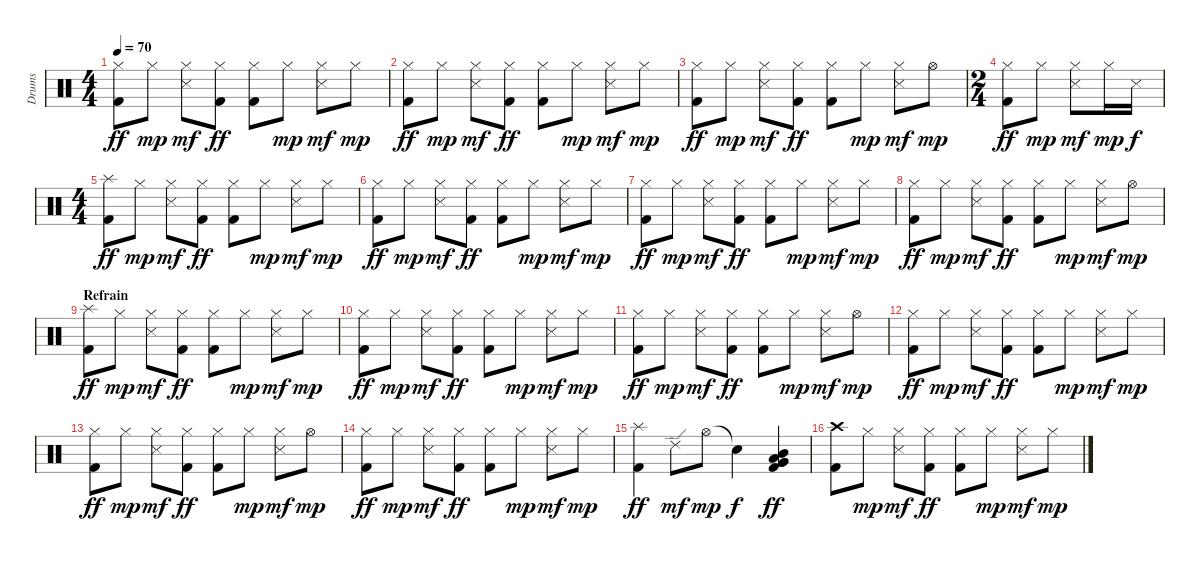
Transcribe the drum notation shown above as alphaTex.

\track ("Drums" "Drums") {instrument percussion}
\staff {score}
\articulation defaults
\ts (4 4)
\tempo 70
\clef neutral
\ks c
("Hi-Hat (closed)" "Kick (hit) 2").8{dy ff} "Hi-Hat (closed)".8{dy mp} ("Hi-Hat (closed)" "Snare (side stick) 3").8{dy mf} ("Hi-Hat (closed)" "Kick (hit) 2").8{dy ff} ("Hi-Hat (closed)" "Kick (hit) 2").8 "Hi-Hat (closed)".8{dy mp} ("Hi-Hat (closed)" "Snare (side stick) 3").8{dy mf} "Hi-Hat (closed)".8{dy mp} |
("Hi-Hat (closed)" "Kick (hit) 2").8{dy ff} "Hi-Hat (closed)".8{dy mp} ("Hi-Hat (closed)" "Snare (side stick) 3").8{dy mf} ("Hi-Hat (closed)" "Kick (hit) 2").8{dy ff} ("Hi-Hat (closed)" "Kick (hit) 2").8 "Hi-Hat (closed)".8{dy mp} ("Hi-Hat (closed)" "Snare (side stick) 3").8{dy mf} "Hi-Hat (closed)".8{dy mp} |
("Hi-Hat (closed)" "Kick (hit) 2").8{dy ff} "Hi-Hat (closed)".8{dy mp} ("Hi-Hat (closed)" "Snare (side stick) 3").8{dy mf} ("Hi-Hat (closed)" "Kick (hit) 2").8{dy ff} ("Hi-Hat (closed)" "Kick (hit) 2").8 "Hi-Hat (closed)".8{dy mp} ("Hi-Hat (closed)" "Snare (side stick) 3").8{dy mf} "Hi-Hat (open)".8{dy mp} |
\ts (2 4)
("Hi-Hat (closed)" "Kick (hit) 2").8{dy ff} "Hi-Hat (closed)".8{dy mp} ("Hi-Hat (closed)" "Snare (side stick) 3").8{dy mf} "Hi-Hat (closed)".16{dy mp} "Snare (side stick) 3".16{dy f} |
\ts (4 4)
("Splash (hit)" "Kick (hit) 2").8{dy ff} "Hi-Hat (closed)".8{dy mp} ("Hi-Hat (closed)" "Snare (side stick) 3").8{dy mf} ("Hi-Hat (closed)" "Kick (hit) 2").8{dy ff} ("Hi-Hat (closed)" "Kick (hit) 2").8 "Hi-Hat (closed)".8{dy mp} ("Hi-Hat (closed)" "Snare (side stick) 3").8{dy mf} "Hi-Hat (closed)".8{dy mp} |
("Hi-Hat (closed)" "Kick (hit) 2").8{dy ff} "Hi-Hat (closed)".8{dy mp} ("Hi-Hat (closed)" "Snare (side stick) 3").8{dy mf} ("Hi-Hat (closed)" "Kick (hit) 2").8{dy ff} ("Hi-Hat (closed)" "Kick (hit) 2").8 "Hi-Hat (closed)".8{dy mp} ("Hi-Hat (closed)" "Snare (side stick) 3").8{dy mf} "Hi-Hat (closed)".8{dy mp} |
("Hi-Hat (closed)" "Kick (hit) 2").8{dy ff} "Hi-Hat (closed)".8{dy mp} ("Hi-Hat (closed)" "Snare (side stick) 3").8{dy mf} ("Hi-Hat (closed)" "Kick (hit) 2").8{dy ff} ("Hi-Hat (closed)" "Kick (hit) 2").8 "Hi-Hat (closed)".8{dy mp} ("Hi-Hat (closed)" "Snare (side stick) 3").8{dy mf} "Hi-Hat (closed)".8{dy mp} |
("Hi-Hat (closed)" "Kick (hit) 2").8{dy ff} "Hi-Hat (closed)".8{dy mp} ("Hi-Hat (closed)" "Snare (side stick) 3").8{dy mf} ("Hi-Hat (closed)" "Kick (hit) 2").8{dy ff} ("Hi-Hat (closed)" "Kick (hit) 2").8 "Hi-Hat (closed)".8{dy mp} ("Hi-Hat (closed)" "Snare (side stick) 3").8{dy mf} "Hi-Hat (open)".8{dy mp} |
\section ("" "Refrain")
("Splash (hit)" "Kick (hit) 2").8{dy ff} "Hi-Hat (closed)".8{dy mp} ("Hi-Hat (closed)" "Snare (side stick) 3").8{dy mf} ("Hi-Hat (closed)" "Kick (hit) 2").8{dy ff} ("Hi-Hat (closed)" "Kick (hit) 2").8 "Hi-Hat (closed)".8{dy mp} ("Hi-Hat (closed)" "Snare (side stick) 3").8{dy mf} "Hi-Hat (closed)".8{dy mp} |
("Hi-Hat (closed)" "Kick (hit) 2").8{dy ff} "Hi-Hat (closed)".8{dy mp} ("Hi-Hat (closed)" "Snare (side stick) 3").8{dy mf} ("Hi-Hat (closed)" "Kick (hit) 2").8{dy ff} ("Hi-Hat (closed)" "Kick (hit) 2").8 "Hi-Hat (closed)".8{dy mp} ("Hi-Hat (closed)" "Snare (side stick) 3").8{dy mf} "Hi-Hat (closed)".8{dy mp} |
("Hi-Hat (closed)" "Kick (hit) 2").8{dy ff} "Hi-Hat (closed)".8{dy mp} ("Hi-Hat (closed)" "Snare (side stick) 3").8{dy mf} ("Hi-Hat (closed)" "Kick (hit) 2").8{dy ff} ("Hi-Hat (closed)" "Kick (hit) 2").8 "Hi-Hat (closed)".8{dy mp} ("Hi-Hat (closed)" "Snare (side stick) 3").8{dy mf} "Hi-Hat (open)".8{dy mp} |
("Hi-Hat (closed)" "Kick (hit) 2").8{dy ff} "Hi-Hat (closed)".8{dy mp} ("Hi-Hat (closed)" "Snare (side stick) 3").8{dy mf} ("Hi-Hat (closed)" "Kick (hit) 2").8{dy ff} ("Hi-Hat (closed)" "Kick (hit) 2").8 "Hi-Hat (closed)".8{dy mp} ("Hi-Hat (closed)" "Snare (side stick) 3").8{dy mf} "Hi-Hat (closed)".8{dy mp} |
("Hi-Hat (closed)" "Kick (hit) 2").8{dy ff} "Hi-Hat (closed)".8{dy mp} ("Hi-Hat (closed)" "Snare (side stick) 3").8{dy mf} ("Hi-Hat (closed)" "Kick (hit) 2").8{dy ff} ("Hi-Hat (closed)" "Kick (hit) 2").8 "Hi-Hat (closed)".8{dy mp} ("Hi-Hat (closed)" "Snare (side stick) 3").8{dy mf} "Hi-Hat (open)".8{dy mp} |
("Hi-Hat (closed)" "Kick (hit) 2").8{dy ff} "Hi-Hat (closed)".8{dy mp} ("Hi-Hat (closed)" "Snare (side stick) 3").8{dy mf} ("Hi-Hat (closed)" "Kick (hit) 2").8{dy ff} ("Hi-Hat (closed)" "Kick (hit) 2").8 "Hi-Hat (closed)".8{dy mp} ("Hi-Hat (closed)" "Snare (side stick) 3").8{dy mf} "Hi-Hat (closed)".8{dy mp} |
("Splash (hit)" "Kick (hit) 2").4{dy ff} "Ride (edge) 2".8{dy mf} "Hi-Hat (open)".8{dy mp} "Snare (hit)"{t}.4{dy f} ("Low Tom (hit)" "Mid Tom (hit)" "Very Low Tom (hit)" "Very Low Tom (hit)" "Kick (hit) 2").4{dy ff} |
("Crash high (hit)" "Kick (hit) 2").8 "Hi-Hat (closed)".8{dy mp} ("Hi-Hat (closed)" "Snare (side stick) 3").8{dy mf} ("Hi-Hat (closed)" "Kick (hit) 2").8{dy ff} ("Hi-Hat (closed)" "Kick (hit) 2").8 "Hi-Hat (closed)".8{dy mp} ("Hi-Hat (closed)" "Snare (side stick) 3").8{dy mf} "Hi-Hat (closed)".8{dy mp}
